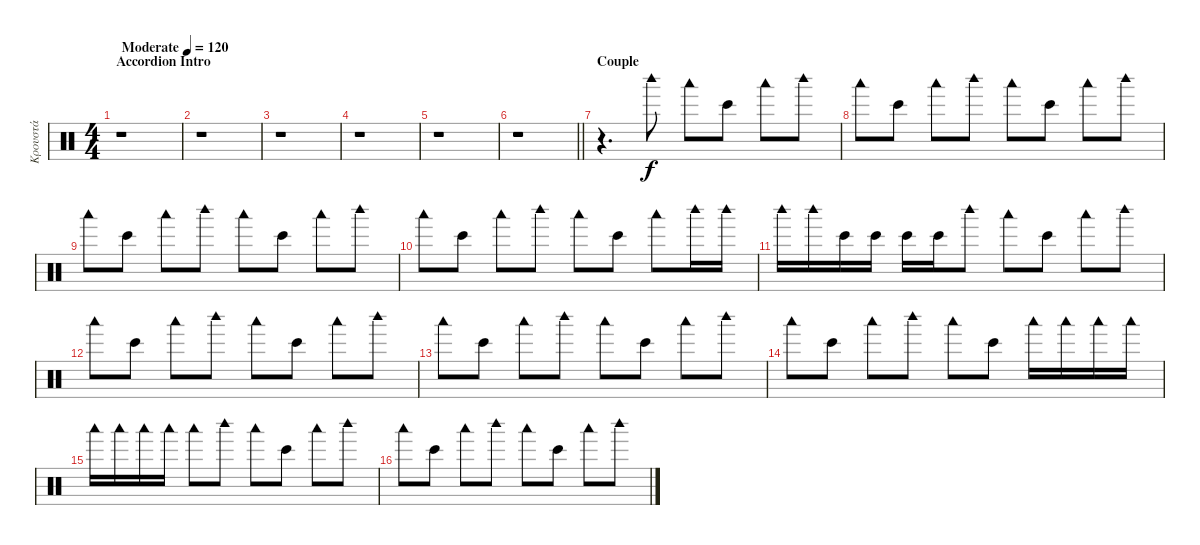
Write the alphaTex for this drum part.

\track ("Κρουστά" "Κρουστά") {instrument percussion}
\staff {score}
\articulation defaults
\ts (4 4)
\section ("" "Accordion Intro")
\tempo (120 "Moderate")
\clef neutral
\ks c
r.1{dy f} |
r.1 |
r.1 |
r.1 |
r.1 |
\barLineRight lightlight
r.1 |
\section ("" "Couple")
r.4{d} "Woodblock high (hit)".8 "Woodblock low (hit)".8 "Bongo High (hit)".8 "Woodblock low (hit)".8 "Woodblock high (hit)".8 |
"Woodblock low (hit)".8 "Bongo High (hit)".8 "Woodblock low (hit)".8 "Woodblock high (hit)".8 "Woodblock low (hit)".8 "Bongo High (hit)".8 "Woodblock low (hit)".8 "Woodblock high (hit)".8 |
"Woodblock low (hit)".8 "Bongo High (hit)".8 "Woodblock low (hit)".8 "Woodblock high (hit)".8 "Woodblock low (hit)".8 "Bongo High (hit)".8 "Woodblock low (hit)".8 "Woodblock high (hit)".8 |
"Woodblock low (hit)".8 "Bongo High (hit)".8 "Woodblock low (hit)".8 "Woodblock high (hit)".8 "Woodblock low (hit)".8 "Bongo High (hit)".8 "Woodblock low (hit)".8 "Woodblock high (hit)".16 "Woodblock high (hit)".16 |
"Woodblock high (hit)".16 "Woodblock high (hit)".16 "Bongo High (hit)".16 "Bongo High (hit)".16 "Bongo High (hit)".16 "Bongo High (hit)".16 "Woodblock high (hit)".8 "Woodblock low (hit)".8 "Bongo High (hit)".8 "Woodblock low (hit)".8 "Woodblock high (hit)".8 |
"Woodblock low (hit)".8 "Bongo High (hit)".8 "Woodblock low (hit)".8 "Woodblock high (hit)".8 "Woodblock low (hit)".8 "Bongo High (hit)".8 "Woodblock low (hit)".8 "Woodblock high (hit)".8 |
"Woodblock low (hit)".8 "Bongo High (hit)".8 "Woodblock low (hit)".8 "Woodblock high (hit)".8 "Woodblock low (hit)".8 "Bongo High (hit)".8 "Woodblock low (hit)".8 "Woodblock high (hit)".8 |
"Woodblock low (hit)".8 "Bongo High (hit)".8 "Woodblock low (hit)".8 "Woodblock high (hit)".8 "Woodblock low (hit)".8 "Bongo High (hit)".8 "Woodblock low (hit)".16 "Woodblock low (hit)".16 "Woodblock low (hit)".16 "Woodblock low (hit)".16 |
"Woodblock low (hit)".16 "Woodblock low (hit)".16 "Woodblock low (hit)".16 "Woodblock low (hit)".16 "Woodblock low (hit)".8 "Woodblock high (hit)".8 "Woodblock low (hit)".8 "Bongo High (hit)".8 "Woodblock low (hit)".8 "Woodblock high (hit)".8 |
"Woodblock low (hit)".8 "Bongo High (hit)".8 "Woodblock low (hit)".8 "Woodblock high (hit)".8 "Woodblock low (hit)".8 "Bongo High (hit)".8 "Woodblock low (hit)".8 "Woodblock high (hit)".8
